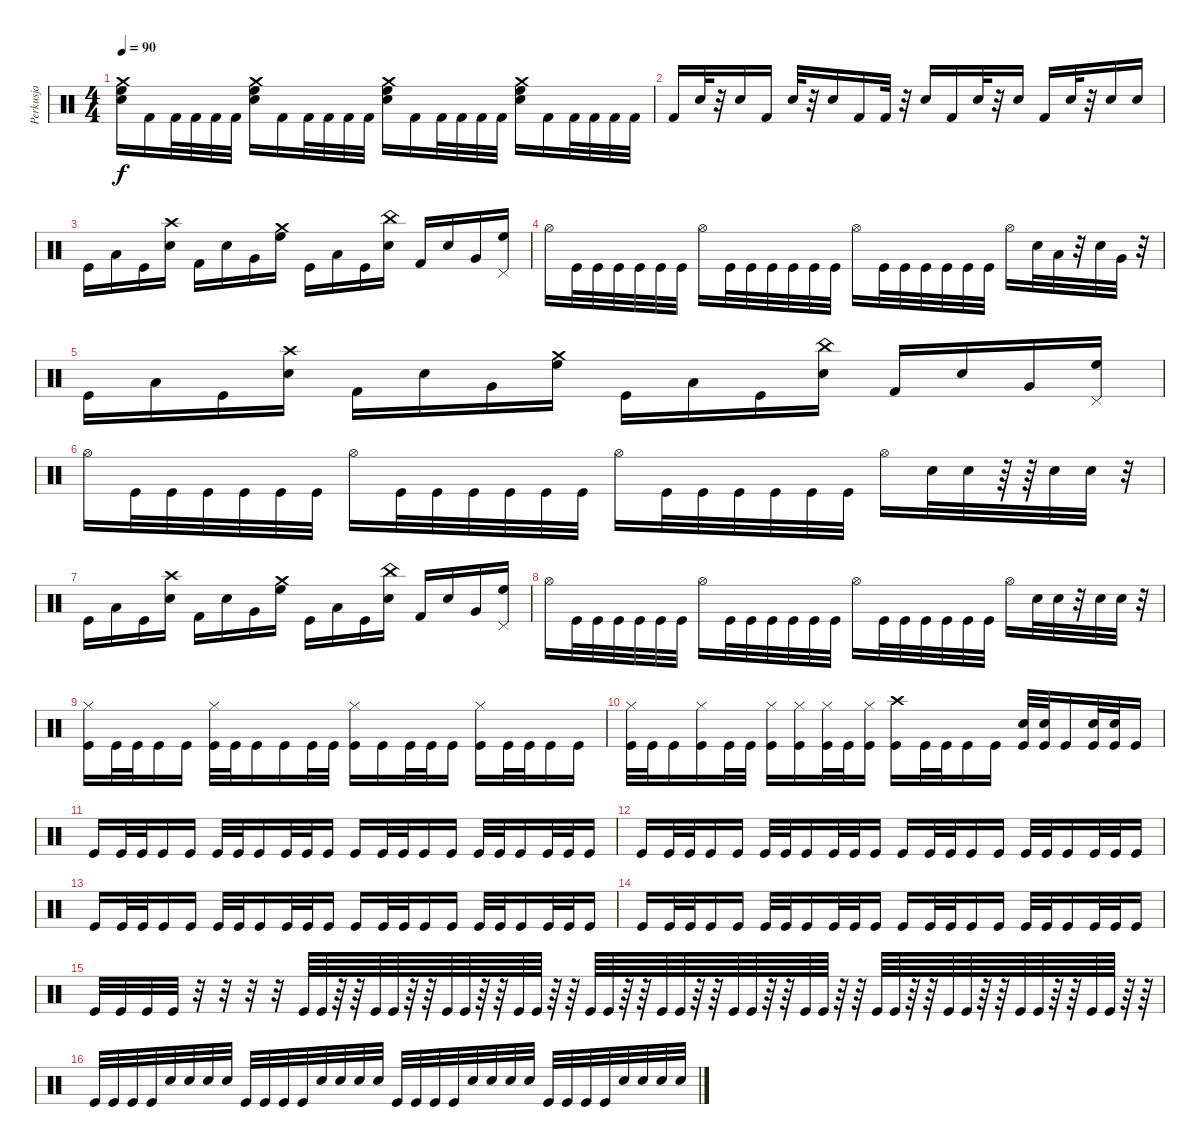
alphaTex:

\track ("Perkusja" "Perkusja") {instrument percussion}
\staff {score}
\articulation defaults
\ts (4 4)
\tempo 90
\clef neutral
\ks c
("Crash medium (hit)" "High Floor Tom (hit)" "Electric Snare (hit)").16{dy f} "Kick (hit) 2".16 "Kick (hit) 2".32 "Kick (hit) 2".32 "Kick (hit) 2".32 "Kick (hit) 2".32 ("Crash medium (hit)" "High Floor Tom (hit)" "Electric Snare (hit)").16 "Kick (hit) 2".16 "Kick (hit) 2".32 "Kick (hit) 2".32 "Kick (hit) 2".32 "Kick (hit) 2".32 ("Crash medium (hit)" "High Floor Tom (hit)" "Electric Snare (hit)").16 "Kick (hit) 2".16 "Kick (hit) 2".32 "Kick (hit) 2".32 "Kick (hit) 2".32 "Kick (hit) 2".32 ("Crash medium (hit)" "High Floor Tom (hit)" "Electric Snare (hit)").16 "Kick (hit) 2".16 "Kick (hit) 2".32 "Kick (hit) 2".32 "Kick (hit) 2".32 "Kick (hit) 2".32 |
"Kick (hit) 2".16 "Electric Snare (hit)".32 r.32 "Electric Snare (hit)".16 "Kick (hit) 2".16 "Electric Snare (hit)".32 r.32 "Electric Snare (hit)".16 "Kick (hit) 2".16 "Kick (hit) 2".32 r.32 "Electric Snare (hit)".16 "Kick (hit) 2".16 "Electric Snare (hit)".32 r.32 "Electric Snare (hit)".16 "Kick (hit) 2".16 "Electric Snare (hit)".32 r.32 "Electric Snare (hit)".16 "Electric Snare (hit)".16 |
"Kick (hit)".16 "Low Tom (hit)".16 "Kick (hit)".16 ("Crash high (hit)" "Electric Snare (hit)").16 "Kick (hit) 2".16 "Snare (hit) 2".16 "Very Low Tom (hit)".16 ("Crash medium (hit)" "High Floor Tom (hit)").16 "Kick (hit)".16 "Low Tom (hit)".16 "Kick (hit)".16 ("China (hit)" "Electric Snare (hit)").16 "Kick (hit) 2".16 "Snare (hit) 2".16 "Very Low Tom (hit)".16 ("Pedal Hi-Hat (hit)" "High Floor Tom (hit)").16 |
"Hi-Hat (open)".16 "Kick (hit)".32 "Kick (hit)".32 "Kick (hit)".32 "Kick (hit)".32 "Kick (hit)".32 "Kick (hit)".32 "Hi-Hat (open)".16 "Kick (hit)".32 "Kick (hit)".32 "Kick (hit)".32 "Kick (hit)".32 "Kick (hit)".32 "Kick (hit)".32 "Hi-Hat (open)".16 "Kick (hit)".32 "Kick (hit)".32 "Kick (hit)".32 "Kick (hit)".32 "Kick (hit)".32 "Kick (hit)".32 "Hi-Hat (open)".16 "Electric Snare (hit)".32 "Low Tom (hit)".32 r.32 "Electric Snare (hit)".32 "Very Low Tom (hit)".32 r.32 |
"Kick (hit)".16 "Low Tom (hit)".16 "Kick (hit)".16 ("Crash high (hit)" "Electric Snare (hit)").16 "Kick (hit) 2".16 "Snare (hit) 2".16 "Very Low Tom (hit)".16 ("Crash medium (hit)" "High Floor Tom (hit)").16 "Kick (hit)".16 "Low Tom (hit)".16 "Kick (hit)".16 ("China (hit)" "Electric Snare (hit)").16 "Kick (hit) 2".16 "Snare (hit) 2".16 "Very Low Tom (hit)".16 ("Pedal Hi-Hat (hit)" "High Floor Tom (hit)").16 |
"Hi-Hat (open)".16 "Kick (hit)".32 "Kick (hit)".32 "Kick (hit)".32 "Kick (hit)".32 "Kick (hit)".32 "Kick (hit)".32 "Hi-Hat (open)".16 "Kick (hit)".32 "Kick (hit)".32 "Kick (hit)".32 "Kick (hit)".32 "Kick (hit)".32 "Kick (hit)".32 "Hi-Hat (open)".16 "Kick (hit)".32 "Kick (hit)".32 "Kick (hit)".32 "Kick (hit)".32 "Kick (hit)".32 "Kick (hit)".32 "Hi-Hat (open)".16 "Snare (hit) 2".32 "Snare (hit) 2".32 r.64 r.64 "Snare (hit) 2".32 "Snare (hit) 2".32 r.32 |
"Kick (hit)".16 "Low Tom (hit)".16 "Kick (hit)".16 ("Crash high (hit)" "Electric Snare (hit)").16 "Kick (hit) 2".16 "Snare (hit) 2".16 "Very Low Tom (hit)".16 ("Crash medium (hit)" "High Floor Tom (hit)").16 "Kick (hit)".16 "Low Tom (hit)".16 "Kick (hit)".16 ("China (hit)" "Electric Snare (hit)").16 "Kick (hit) 2".16 "Snare (hit) 2".16 "Very Low Tom (hit)".16 ("Pedal Hi-Hat (hit)" "High Floor Tom (hit)").16 |
"Hi-Hat (open)".16 "Kick (hit)".32 "Kick (hit)".32 "Kick (hit)".32 "Kick (hit)".32 "Kick (hit)".32 "Kick (hit)".32 "Hi-Hat (open)".16 "Kick (hit)".32 "Kick (hit)".32 "Kick (hit)".32 "Kick (hit)".32 "Kick (hit)".32 "Kick (hit)".32 "Hi-Hat (open)".16 "Kick (hit)".32 "Kick (hit)".32 "Kick (hit)".32 "Kick (hit)".32 "Kick (hit)".32 "Kick (hit)".32 "Hi-Hat (open)".16 "Electric Snare (hit)".32 "Electric Snare (hit)".32 r.32 "Electric Snare (hit)".32 "Electric Snare (hit)".32 r.32 |
("Hi-Hat (closed)" "Kick (hit)").16 "Kick (hit)".32 "Kick (hit)".32 "Kick (hit)".16 "Kick (hit)".16 ("Hi-Hat (closed)" "Kick (hit)").32 "Kick (hit)".32 "Kick (hit)".16 "Kick (hit)".16 "Kick (hit)".32 "Kick (hit)".32 ("Hi-Hat (closed)" "Kick (hit)").16 "Kick (hit)".16 "Kick (hit)".32 "Kick (hit)".32 "Kick (hit)".16 ("Hi-Hat (closed)" "Kick (hit)").16 "Kick (hit)".32 "Kick (hit)".32 "Kick (hit)".16 "Kick (hit)".16 |
("Hi-Hat (closed)" "Kick (hit)").32 "Kick (hit)".32 "Kick (hit)".16 ("Hi-Hat (closed)" "Kick (hit)").16 "Kick (hit)".32 "Kick (hit)".32 ("Hi-Hat (closed)" "Kick (hit)").16 ("Hi-Hat (closed)" "Kick (hit)").16 ("Hi-Hat (closed)" "Kick (hit)").32 "Kick (hit)".32 ("Hi-Hat (closed)" "Kick (hit)").16 ("Crash high (hit)" "Kick (hit)").16 "Kick (hit)".32 "Kick (hit)".32 "Kick (hit)".16 "Kick (hit)".16 ("Electric Snare (hit)" "Kick (hit)").32 ("Electric Snare (hit)" "Kick (hit)").32 "Kick (hit)".16 ("Electric Snare (hit)" "Kick (hit)").32 ("Electric Snare (hit)" "Kick (hit)").32 "Kick (hit)".16 |
"Kick (hit)".16 "Kick (hit)".32 "Kick (hit)".32 "Kick (hit)".16 "Kick (hit)".16 "Kick (hit)".32 "Kick (hit)".32 "Kick (hit)".16 "Kick (hit)".32 "Kick (hit)".32 "Kick (hit)".16 "Kick (hit)".16 "Kick (hit)".32 "Kick (hit)".32 "Kick (hit)".16 "Kick (hit)".16 "Kick (hit)".32 "Kick (hit)".32 "Kick (hit)".16 "Kick (hit)".32 "Kick (hit)".32 "Kick (hit)".16 |
"Kick (hit)".16 "Kick (hit)".32 "Kick (hit)".32 "Kick (hit)".16 "Kick (hit)".16 "Kick (hit)".32 "Kick (hit)".32 "Kick (hit)".16 "Kick (hit)".32 "Kick (hit)".32 "Kick (hit)".16 "Kick (hit)".16 "Kick (hit)".32 "Kick (hit)".32 "Kick (hit)".16 "Kick (hit)".16 "Kick (hit)".32 "Kick (hit)".32 "Kick (hit)".16 "Kick (hit)".32 "Kick (hit)".32 "Kick (hit)".16 |
"Kick (hit)".16 "Kick (hit)".32 "Kick (hit)".32 "Kick (hit)".16 "Kick (hit)".16 "Kick (hit)".32 "Kick (hit)".32 "Kick (hit)".16 "Kick (hit)".32 "Kick (hit)".32 "Kick (hit)".16 "Kick (hit)".16 "Kick (hit)".32 "Kick (hit)".32 "Kick (hit)".16 "Kick (hit)".16 "Kick (hit)".32 "Kick (hit)".32 "Kick (hit)".16 "Kick (hit)".32 "Kick (hit)".32 "Kick (hit)".16 |
"Kick (hit)".16 "Kick (hit)".32 "Kick (hit)".32 "Kick (hit)".16 "Kick (hit)".16 "Kick (hit)".32 "Kick (hit)".32 "Kick (hit)".16 "Kick (hit)".32 "Kick (hit)".32 "Kick (hit)".16 "Kick (hit)".16 "Kick (hit)".32 "Kick (hit)".32 "Kick (hit)".16 "Kick (hit)".16 "Kick (hit)".32 "Kick (hit)".32 "Kick (hit)".16 "Kick (hit)".32 "Kick (hit)".32 "Kick (hit)".16 |
"Kick (hit)".32 "Kick (hit)".32 "Kick (hit)".32 "Kick (hit)".32 r.32 r.32 r.32 r.32 "Kick (hit)".64 "Kick (hit)".64 r.64 r.64 "Kick (hit)".64 "Kick (hit)".64 r.64 r.64 "Kick (hit)".64 "Kick (hit)".64 r.64 r.64 "Kick (hit)".64 "Kick (hit)".64 r.64 r.64 "Kick (hit)".64 "Kick (hit)".64 r.64 r.64 "Kick (hit)".64 "Kick (hit)".64 r.64 r.64 "Kick (hit)".64 "Kick (hit)".64 r.64 r.64 "Kick (hit)".64 "Kick (hit)".64 r.64 r.64 "Kick (hit)".64 "Kick (hit)".64 r.64 r.64 "Kick (hit)".64 "Kick (hit)".64 r.64 r.64 "Kick (hit)".64 "Kick (hit)".64 r.64 r.64 "Kick (hit)".64 "Kick (hit)".64 r.64 r.64 |
"Kick (hit)".32 "Kick (hit)".32 "Kick (hit)".32 "Kick (hit)".32 "Snare (hit) 2".32 "Snare (hit) 2".32 "Snare (hit) 2".32 "Snare (hit) 2".32 "Kick (hit)".32 "Kick (hit)".32 "Kick (hit)".32 "Kick (hit)".32 "Snare (hit) 2".32 "Snare (hit) 2".32 "Snare (hit) 2".32 "Snare (hit) 2".32 "Kick (hit)".32 "Kick (hit)".32 "Kick (hit)".32 "Kick (hit)".32 "Snare (hit) 2".32 "Snare (hit) 2".32 "Snare (hit) 2".32 "Snare (hit) 2".32 "Kick (hit)".32 "Kick (hit)".32 "Kick (hit)".32 "Kick (hit)".32 "Electric Snare (hit)".32 "Electric Snare (hit)".32 "Electric Snare (hit)".32 "Electric Snare (hit)".32
